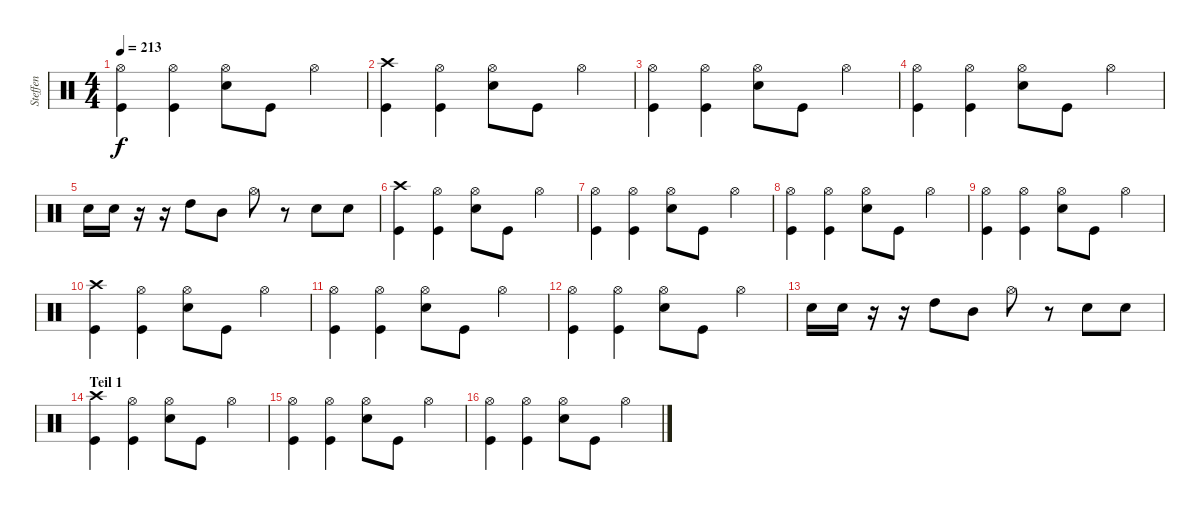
\track ("Steffen" "Steffen") {instrument percussion}
\staff {score}
\articulation defaults
\ts (4 4)
\tempo 213
\clef neutral
\ks c
("Hi-Hat (open)" "Kick (hit)").4{dy f} ("Hi-Hat (open)" "Kick (hit)").4 ("Hi-Hat (open)" "Snare (hit) 2").8 "Kick (hit)".8 "Hi-Hat (open)".4 |
("Crash high (hit)" "Kick (hit)").4 ("Hi-Hat (open)" "Kick (hit)").4 ("Hi-Hat (open)" "Snare (hit) 2").8 "Kick (hit)".8 "Hi-Hat (open)".4 |
("Hi-Hat (open)" "Kick (hit)").4 ("Hi-Hat (open)" "Kick (hit)").4 ("Hi-Hat (open)" "Snare (hit) 2").8 "Kick (hit)".8 "Hi-Hat (open)".4 |
("Hi-Hat (open)" "Kick (hit)").4 ("Hi-Hat (open)" "Kick (hit)").4 ("Hi-Hat (open)" "Snare (hit) 2").8 "Kick (hit)".8 "Hi-Hat (open)".4 |
"Snare (hit) 2".16 "Snare (hit) 2".16 r.16 r.16 "High Tom (hit)".8 "Mid Tom (hit)".8 "Hi-Hat (open)".8 r.8 "Snare (hit) 2".8 "Snare (hit) 2".8 |
("Crash high (hit)" "Kick (hit)").4 ("Hi-Hat (open)" "Kick (hit)").4 ("Hi-Hat (open)" "Snare (hit) 2").8 "Kick (hit)".8 "Hi-Hat (open)".4 |
("Hi-Hat (open)" "Kick (hit)").4 ("Hi-Hat (open)" "Kick (hit)").4 ("Hi-Hat (open)" "Snare (hit) 2").8 "Kick (hit)".8 "Hi-Hat (open)".4 |
("Hi-Hat (open)" "Kick (hit)").4 ("Hi-Hat (open)" "Kick (hit)").4 ("Hi-Hat (open)" "Snare (hit) 2").8 "Kick (hit)".8 "Hi-Hat (open)".4 |
("Hi-Hat (open)" "Kick (hit)").4 ("Hi-Hat (open)" "Kick (hit)").4 ("Hi-Hat (open)" "Snare (hit) 2").8 "Kick (hit)".8 "Hi-Hat (open)".4 |
("Crash high (hit)" "Kick (hit)").4 ("Hi-Hat (open)" "Kick (hit)").4 ("Hi-Hat (open)" "Snare (hit) 2").8 "Kick (hit)".8 "Hi-Hat (open)".4 |
("Hi-Hat (open)" "Kick (hit)").4 ("Hi-Hat (open)" "Kick (hit)").4 ("Hi-Hat (open)" "Snare (hit) 2").8 "Kick (hit)".8 "Hi-Hat (open)".4 |
("Hi-Hat (open)" "Kick (hit)").4 ("Hi-Hat (open)" "Kick (hit)").4 ("Hi-Hat (open)" "Snare (hit) 2").8 "Kick (hit)".8 "Hi-Hat (open)".4 |
"Snare (hit) 2".16 "Snare (hit) 2".16 r.16 r.16 "High Tom (hit)".8 "Mid Tom (hit)".8 "Hi-Hat (open)".8 r.8 "Snare (hit) 2".8 "Snare (hit) 2".8 |
\section ("" "Teil 1")
("Crash high (hit)" "Kick (hit)").4 ("Hi-Hat (open)" "Kick (hit)").4 ("Hi-Hat (open)" "Snare (hit) 2").8 "Kick (hit)".8 "Hi-Hat (open)".4 |
("Hi-Hat (open)" "Kick (hit)").4 ("Hi-Hat (open)" "Kick (hit)").4 ("Hi-Hat (open)" "Snare (hit) 2").8 "Kick (hit)".8 "Hi-Hat (open)".4 |
("Hi-Hat (open)" "Kick (hit)").4 ("Hi-Hat (open)" "Kick (hit)").4 ("Hi-Hat (open)" "Snare (hit) 2").8 "Kick (hit)".8 "Hi-Hat (open)".4
